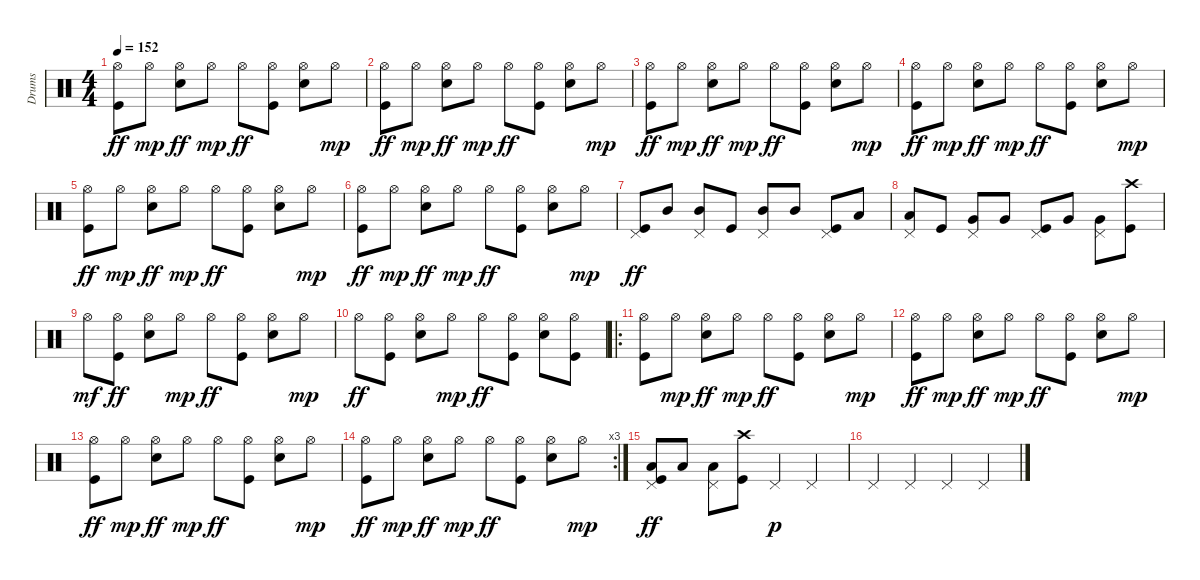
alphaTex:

\track ("Drums" "Drums") {instrument percussion}
\staff {score}
\articulation defaults
\ts (4 4)
\tempo 152
\clef neutral
\ks c
("Hi-Hat (open)" "Kick (hit)").8{dy ff} "Hi-Hat (open)".8{dy mp} ("Hi-Hat (open)" "Snare (hit) 2").8{dy ff} "Hi-Hat (open)".8{dy mp} "Hi-Hat (open)".8{dy ff} ("Hi-Hat (open)" "Kick (hit)").8 ("Hi-Hat (open)" "Snare (hit) 2").8 "Hi-Hat (open)".8{dy mp} |
("Hi-Hat (open)" "Kick (hit)").8{dy ff} "Hi-Hat (open)".8{dy mp} ("Hi-Hat (open)" "Snare (hit) 2").8{dy ff} "Hi-Hat (open)".8{dy mp} "Hi-Hat (open)".8{dy ff} ("Hi-Hat (open)" "Kick (hit)").8 ("Hi-Hat (open)" "Snare (hit) 2").8 "Hi-Hat (open)".8{dy mp} |
("Hi-Hat (open)" "Kick (hit)").8{dy ff} "Hi-Hat (open)".8{dy mp} ("Hi-Hat (open)" "Snare (hit) 2").8{dy ff} "Hi-Hat (open)".8{dy mp} "Hi-Hat (open)".8{dy ff} ("Hi-Hat (open)" "Kick (hit)").8 ("Hi-Hat (open)" "Snare (hit) 2").8 "Hi-Hat (open)".8{dy mp} |
("Hi-Hat (open)" "Kick (hit)").8{dy ff} "Hi-Hat (open)".8{dy mp} ("Hi-Hat (open)" "Snare (hit) 2").8{dy ff} "Hi-Hat (open)".8{dy mp} "Hi-Hat (open)".8{dy ff} ("Hi-Hat (open)" "Kick (hit)").8 ("Hi-Hat (open)" "Snare (hit) 2").8 "Hi-Hat (open)".8{dy mp} |
("Hi-Hat (open)" "Kick (hit)").8{dy ff} "Hi-Hat (open)".8{dy mp} ("Hi-Hat (open)" "Snare (hit) 2").8{dy ff} "Hi-Hat (open)".8{dy mp} "Hi-Hat (open)".8{dy ff} ("Hi-Hat (open)" "Kick (hit)").8 ("Hi-Hat (open)" "Snare (hit) 2").8 "Hi-Hat (open)".8{dy mp} |
("Hi-Hat (open)" "Kick (hit)").8{dy ff} "Hi-Hat (open)".8{dy mp} ("Hi-Hat (open)" "Snare (hit) 2").8{dy ff} "Hi-Hat (open)".8{dy mp} "Hi-Hat (open)".8{dy ff} ("Hi-Hat (open)" "Kick (hit)").8 ("Hi-Hat (open)" "Snare (hit) 2").8 "Hi-Hat (open)".8{dy mp} |
("Pedal Hi-Hat (hit)" "Kick (hit)").8{dy ff} "Mid Tom (hit)".8 ("Pedal Hi-Hat (hit)" "Mid Tom (hit)").8 "Kick (hit)".8 ("Pedal Hi-Hat (hit)" "Mid Tom (hit)").8 "Mid Tom (hit)".8 ("Pedal Hi-Hat (hit)" "Kick (hit)").8 "Low Tom (hit)".8 |
("Pedal Hi-Hat (hit)" "Low Tom (hit)").8 "Kick (hit)".8 ("Pedal Hi-Hat (hit)" "Very Low Tom (hit)").8 "Very Low Tom (hit)".8 ("Pedal Hi-Hat (hit)" "Kick (hit)").8 "Very Low Tom (hit)".8 ("Pedal Hi-Hat (hit)" "Very Low Tom (hit)").8 ("Crash high (hit)" "Kick (hit)").8 |
"Hi-Hat (open)".8{dy mf} ("Hi-Hat (open)" "Kick (hit)").8{dy ff} ("Hi-Hat (open)" "Snare (hit) 2").8 "Hi-Hat (open)".8{dy mp} "Hi-Hat (open)".8{dy ff} ("Hi-Hat (open)" "Kick (hit)").8 ("Hi-Hat (open)" "Snare (hit) 2").8 "Hi-Hat (open)".8{dy mp} |
"Hi-Hat (open)".8{dy ff} ("Hi-Hat (open)" "Kick (hit)").8 ("Hi-Hat (open)" "Snare (hit) 2").8 "Hi-Hat (open)".8{dy mp} "Hi-Hat (open)".8{dy ff} ("Hi-Hat (open)" "Kick (hit)").8 ("Hi-Hat (open)" "Snare (hit) 2").8 ("Hi-Hat (open)" "Kick (hit)").8 |
\ro
("Hi-Hat (open)" "Kick (hit)").8 "Hi-Hat (open)".8{dy mp} ("Hi-Hat (open)" "Snare (hit) 2").8{dy ff} "Hi-Hat (open)".8{dy mp} "Hi-Hat (open)".8{dy ff} ("Hi-Hat (open)" "Kick (hit)").8 ("Hi-Hat (open)" "Snare (hit) 2").8 "Hi-Hat (open)".8{dy mp} |
("Hi-Hat (open)" "Kick (hit)").8{dy ff} "Hi-Hat (open)".8{dy mp} ("Hi-Hat (open)" "Snare (hit) 2").8{dy ff} "Hi-Hat (open)".8{dy mp} "Hi-Hat (open)".8{dy ff} ("Hi-Hat (open)" "Kick (hit)").8 ("Hi-Hat (open)" "Snare (hit) 2").8 "Hi-Hat (open)".8{dy mp} |
("Hi-Hat (open)" "Kick (hit)").8{dy ff} "Hi-Hat (open)".8{dy mp} ("Hi-Hat (open)" "Snare (hit) 2").8{dy ff} "Hi-Hat (open)".8{dy mp} "Hi-Hat (open)".8{dy ff} ("Hi-Hat (open)" "Kick (hit)").8 ("Hi-Hat (open)" "Snare (hit) 2").8 "Hi-Hat (open)".8{dy mp} |
\rc 3
("Hi-Hat (open)" "Kick (hit)").8{dy ff} "Hi-Hat (open)".8{dy mp} ("Hi-Hat (open)" "Snare (hit) 2").8{dy ff} "Hi-Hat (open)".8{dy mp} "Hi-Hat (open)".8{dy ff} ("Hi-Hat (open)" "Kick (hit)").8 ("Hi-Hat (open)" "Snare (hit) 2").8 "Hi-Hat (open)".8{dy mp} |
("Pedal Hi-Hat (hit)" "Low Tom (hit)" "Kick (hit)").8{dy ff} "Low Tom (hit)".8 ("Pedal Hi-Hat (hit)" "Low Tom (hit)").8 ("Crash high (hit)" "Kick (hit)").8 "Pedal Hi-Hat (hit)".4{dy p} "Pedal Hi-Hat (hit)".4 |
"Pedal Hi-Hat (hit)".4 "Pedal Hi-Hat (hit)".4 "Pedal Hi-Hat (hit)".4 "Pedal Hi-Hat (hit)".4
